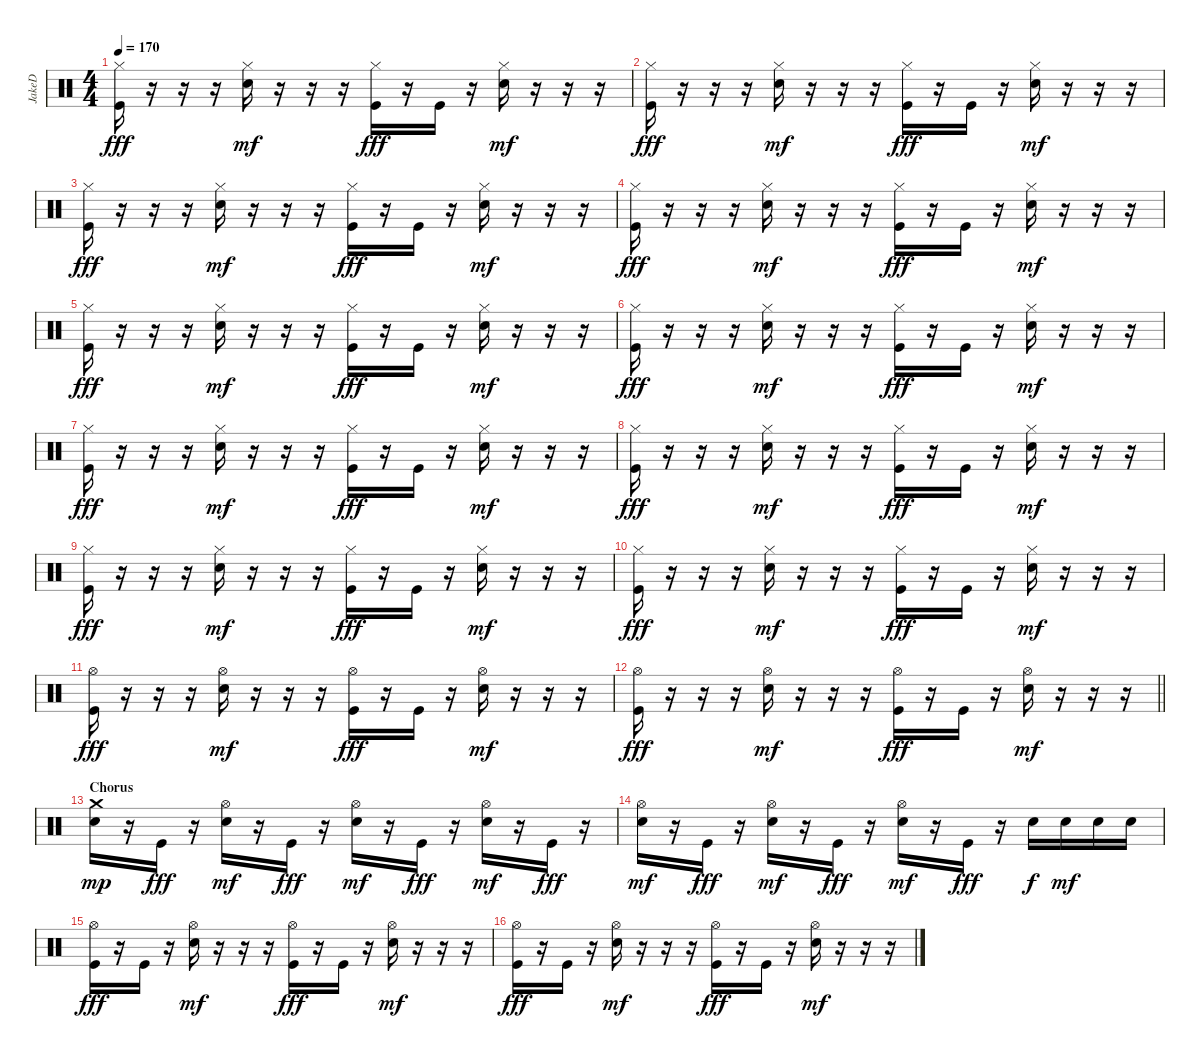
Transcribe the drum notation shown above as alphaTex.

\track ("JakeD" "JakeD") {instrument percussion}
\staff {score}
\articulation defaults
\ts (4 4)
\tempo 170
\clef neutral
\ks c
("Hi-Hat (closed)" "Kick (hit)").16{dy fff} r.16 r.16 r.16 ("Hi-Hat (closed)" "Electric Snare (hit)").16{dy mf} r.16 r.16 r.16 ("Hi-Hat (closed)" "Kick (hit)").16{dy fff} r.16 "Kick (hit)".16 r.16 ("Hi-Hat (closed)" "Electric Snare (hit)").16{dy mf} r.16 r.16 r.16 |
("Hi-Hat (closed)" "Kick (hit)").16{dy fff} r.16 r.16 r.16 ("Hi-Hat (closed)" "Electric Snare (hit)").16{dy mf} r.16 r.16 r.16 ("Hi-Hat (closed)" "Kick (hit)").16{dy fff} r.16 "Kick (hit)".16 r.16 ("Hi-Hat (closed)" "Electric Snare (hit)").16{dy mf} r.16 r.16 r.16 |
("Hi-Hat (closed)" "Kick (hit)").16{dy fff} r.16 r.16 r.16 ("Hi-Hat (closed)" "Electric Snare (hit)").16{dy mf} r.16 r.16 r.16 ("Hi-Hat (closed)" "Kick (hit)").16{dy fff} r.16 "Kick (hit)".16 r.16 ("Hi-Hat (closed)" "Electric Snare (hit)").16{dy mf} r.16 r.16 r.16 |
("Hi-Hat (closed)" "Kick (hit)").16{dy fff} r.16 r.16 r.16 ("Hi-Hat (closed)" "Electric Snare (hit)").16{dy mf} r.16 r.16 r.16 ("Hi-Hat (closed)" "Kick (hit)").16{dy fff} r.16 "Kick (hit)".16 r.16 ("Hi-Hat (closed)" "Electric Snare (hit)").16{dy mf} r.16 r.16 r.16 |
("Hi-Hat (closed)" "Kick (hit)").16{dy fff} r.16 r.16 r.16 ("Hi-Hat (closed)" "Electric Snare (hit)").16{dy mf} r.16 r.16 r.16 ("Hi-Hat (closed)" "Kick (hit)").16{dy fff} r.16 "Kick (hit)".16 r.16 ("Hi-Hat (closed)" "Electric Snare (hit)").16{dy mf} r.16 r.16 r.16 |
("Hi-Hat (closed)" "Kick (hit)").16{dy fff} r.16 r.16 r.16 ("Hi-Hat (closed)" "Electric Snare (hit)").16{dy mf} r.16 r.16 r.16 ("Hi-Hat (closed)" "Kick (hit)").16{dy fff} r.16 "Kick (hit)".16 r.16 ("Hi-Hat (closed)" "Electric Snare (hit)").16{dy mf} r.16 r.16 r.16 |
("Hi-Hat (closed)" "Kick (hit)").16{dy fff} r.16 r.16 r.16 ("Hi-Hat (closed)" "Electric Snare (hit)").16{dy mf} r.16 r.16 r.16 ("Hi-Hat (closed)" "Kick (hit)").16{dy fff} r.16 "Kick (hit)".16 r.16 ("Hi-Hat (closed)" "Electric Snare (hit)").16{dy mf} r.16 r.16 r.16 |
("Hi-Hat (closed)" "Kick (hit)").16{dy fff} r.16 r.16 r.16 ("Hi-Hat (closed)" "Electric Snare (hit)").16{dy mf} r.16 r.16 r.16 ("Hi-Hat (closed)" "Kick (hit)").16{dy fff} r.16 "Kick (hit)".16 r.16 ("Hi-Hat (closed)" "Electric Snare (hit)").16{dy mf} r.16 r.16 r.16 |
("Hi-Hat (closed)" "Kick (hit)").16{dy fff} r.16 r.16 r.16 ("Hi-Hat (closed)" "Electric Snare (hit)").16{dy mf} r.16 r.16 r.16 ("Hi-Hat (closed)" "Kick (hit)").16{dy fff} r.16 "Kick (hit)".16 r.16 ("Hi-Hat (closed)" "Electric Snare (hit)").16{dy mf} r.16 r.16 r.16 |
("Hi-Hat (closed)" "Kick (hit)").16{dy fff} r.16 r.16 r.16 ("Hi-Hat (closed)" "Electric Snare (hit)").16{dy mf} r.16 r.16 r.16 ("Hi-Hat (closed)" "Kick (hit)").16{dy fff} r.16 "Kick (hit)".16 r.16 ("Hi-Hat (closed)" "Electric Snare (hit)").16{dy mf} r.16 r.16 r.16 |
("Hi-Hat (open)" "Kick (hit)").16{dy fff} r.16 r.16 r.16 ("Hi-Hat (open)" "Electric Snare (hit)").16{dy mf} r.16 r.16 r.16 ("Hi-Hat (open)" "Kick (hit)").16{dy fff} r.16 "Kick (hit)".16 r.16 ("Hi-Hat (open)" "Electric Snare (hit)").16{dy mf} r.16 r.16 r.16 |
\barLineRight lightlight
("Hi-Hat (open)" "Kick (hit)").16{dy fff} r.16 r.16 r.16 ("Hi-Hat (open)" "Electric Snare (hit)").16{dy mf} r.16 r.16 r.16 ("Hi-Hat (open)" "Kick (hit)").16{dy fff} r.16 "Kick (hit)".16 r.16 ("Hi-Hat (open)" "Electric Snare (hit)").16{dy mf} r.16 r.16 r.16 |
\section ("" "Chorus")
("Crash medium (hit)" "Electric Snare (hit)").16{dy mp} r.16 "Kick (hit)".16{dy fff} r.16 ("Hi-Hat (open)" "Electric Snare (hit)").16{dy mf} r.16 "Kick (hit)".16{dy fff} r.16 ("Hi-Hat (open)" "Electric Snare (hit)").16{dy mf} r.16 "Kick (hit)".16{dy fff} r.16 ("Hi-Hat (open)" "Electric Snare (hit)").16{dy mf} r.16 "Kick (hit)".16{dy fff} r.16 |
("Hi-Hat (open)" "Electric Snare (hit)").16{dy mf} r.16 "Kick (hit)".16{dy fff} r.16 ("Hi-Hat (open)" "Electric Snare (hit)").16{dy mf} r.16 "Kick (hit)".16{dy fff} r.16 ("Hi-Hat (open)" "Electric Snare (hit)").16{dy mf} r.16 "Kick (hit)".16{dy fff} r.16 "Electric Snare (hit)".16{dy f} "Electric Snare (hit)".16{dy mf} "Electric Snare (hit)".16 "Electric Snare (hit)".16 |
("Hi-Hat (open)" "Kick (hit)").16{dy fff} r.16 "Kick (hit)".16 r.16 ("Hi-Hat (open)" "Electric Snare (hit)").16{dy mf} r.16 r.16 r.16 ("Hi-Hat (open)" "Kick (hit)").16{dy fff} r.16 "Kick (hit)".16 r.16 ("Hi-Hat (open)" "Electric Snare (hit)").16{dy mf} r.16 r.16 r.16 |
("Hi-Hat (open)" "Kick (hit)").16{dy fff} r.16 "Kick (hit)".16 r.16 ("Hi-Hat (open)" "Electric Snare (hit)").16{dy mf} r.16 r.16 r.16 ("Hi-Hat (open)" "Kick (hit)").16{dy fff} r.16 "Kick (hit)".16 r.16 ("Hi-Hat (open)" "Electric Snare (hit)").16{dy mf} r.16 r.16 r.16
